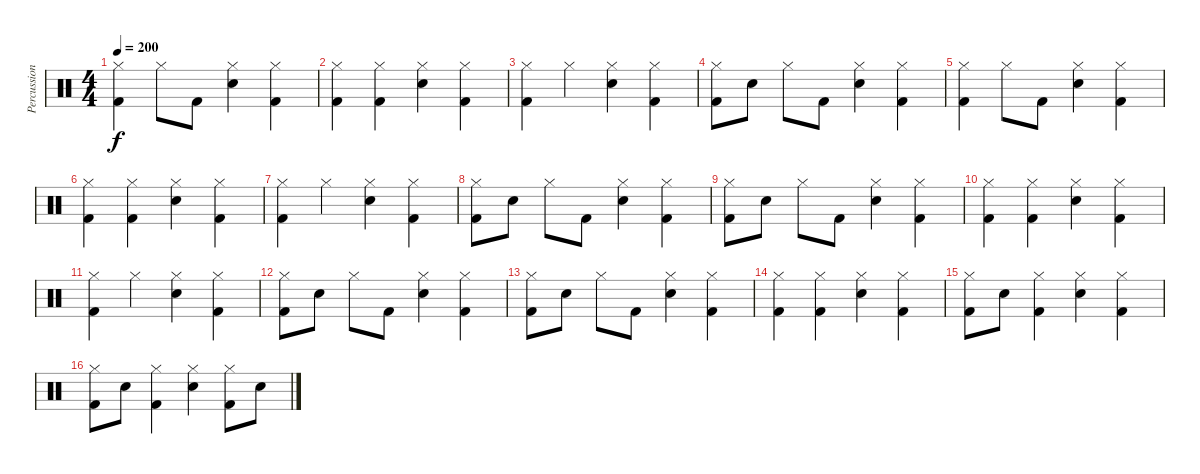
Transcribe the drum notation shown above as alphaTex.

\track ("Percussion" "Percussion") {instrument percussion}
\staff {score}
\articulation defaults
\ts (4 4)
\tempo 200
\clef neutral
\ks c
("Kick (hit) 2" "Hi-Hat (closed)").4{dy f} "Hi-Hat (closed)".8 "Kick (hit) 2".8 ("Snare (hit) 2" "Hi-Hat (closed)").4 ("Kick (hit) 2" "Hi-Hat (closed)").4 |
("Kick (hit) 2" "Hi-Hat (closed)").4 ("Kick (hit) 2" "Hi-Hat (closed)").4 ("Snare (hit) 2" "Hi-Hat (closed)").4 ("Kick (hit) 2" "Hi-Hat (closed)").4 |
("Kick (hit) 2" "Hi-Hat (closed)").4 "Hi-Hat (closed)".4 ("Snare (hit) 2" "Hi-Hat (closed)").4 ("Kick (hit) 2" "Hi-Hat (closed)").4 |
("Kick (hit) 2" "Hi-Hat (closed)").8 "Snare (hit) 2".8 "Hi-Hat (closed)".8 "Kick (hit) 2".8 ("Snare (hit) 2" "Hi-Hat (closed)").4 ("Kick (hit) 2" "Hi-Hat (closed)").4 |
("Kick (hit) 2" "Hi-Hat (closed)").4 "Hi-Hat (closed)".8 "Kick (hit) 2".8 ("Snare (hit) 2" "Hi-Hat (closed)").4 ("Kick (hit) 2" "Hi-Hat (closed)").4 |
("Kick (hit) 2" "Hi-Hat (closed)").4 ("Kick (hit) 2" "Hi-Hat (closed)").4 ("Snare (hit) 2" "Hi-Hat (closed)").4 ("Kick (hit) 2" "Hi-Hat (closed)").4 |
("Kick (hit) 2" "Hi-Hat (closed)").4 "Hi-Hat (closed)".4 ("Snare (hit) 2" "Hi-Hat (closed)").4 ("Kick (hit) 2" "Hi-Hat (closed)").4 |
("Kick (hit) 2" "Hi-Hat (closed)").8 "Snare (hit) 2".8 "Hi-Hat (closed)".8 "Kick (hit) 2".8 ("Snare (hit) 2" "Hi-Hat (closed)").4 ("Kick (hit) 2" "Hi-Hat (closed)").4 |
("Kick (hit) 2" "Hi-Hat (closed)").8 "Snare (hit) 2".8 "Hi-Hat (closed)".8 "Kick (hit) 2".8 ("Snare (hit) 2" "Hi-Hat (closed)").4 ("Kick (hit) 2" "Hi-Hat (closed)").4 |
("Kick (hit) 2" "Hi-Hat (closed)").4 ("Kick (hit) 2" "Hi-Hat (closed)").4 ("Snare (hit) 2" "Hi-Hat (closed)").4 ("Kick (hit) 2" "Hi-Hat (closed)").4 |
("Kick (hit) 2" "Hi-Hat (closed)").4 "Hi-Hat (closed)".4 ("Snare (hit) 2" "Hi-Hat (closed)").4 ("Kick (hit) 2" "Hi-Hat (closed)").4 |
("Kick (hit) 2" "Hi-Hat (closed)").8 "Snare (hit) 2".8 "Hi-Hat (closed)".8 "Kick (hit) 2".8 ("Snare (hit) 2" "Hi-Hat (closed)").4 ("Kick (hit) 2" "Hi-Hat (closed)").4 |
("Kick (hit) 2" "Hi-Hat (closed)").8 "Snare (hit) 2".8 "Hi-Hat (closed)".8 "Kick (hit) 2".8 ("Snare (hit) 2" "Hi-Hat (closed)").4 ("Kick (hit) 2" "Hi-Hat (closed)").4 |
("Kick (hit) 2" "Hi-Hat (closed)").4 ("Kick (hit) 2" "Hi-Hat (closed)").4 ("Snare (hit) 2" "Hi-Hat (closed)").4 ("Kick (hit) 2" "Hi-Hat (closed)").4 |
("Kick (hit) 2" "Hi-Hat (closed)").8 "Snare (hit) 2".8 ("Kick (hit) 2" "Hi-Hat (closed)").4 ("Snare (hit) 2" "Hi-Hat (closed)").4 ("Kick (hit) 2" "Hi-Hat (closed)").4 |
("Kick (hit) 2" "Hi-Hat (closed)").8 "Snare (hit) 2".8 ("Kick (hit) 2" "Hi-Hat (closed)").4 ("Snare (hit) 2" "Hi-Hat (closed)").4 ("Kick (hit) 2" "Hi-Hat (closed)").8 "Snare (hit) 2".8
